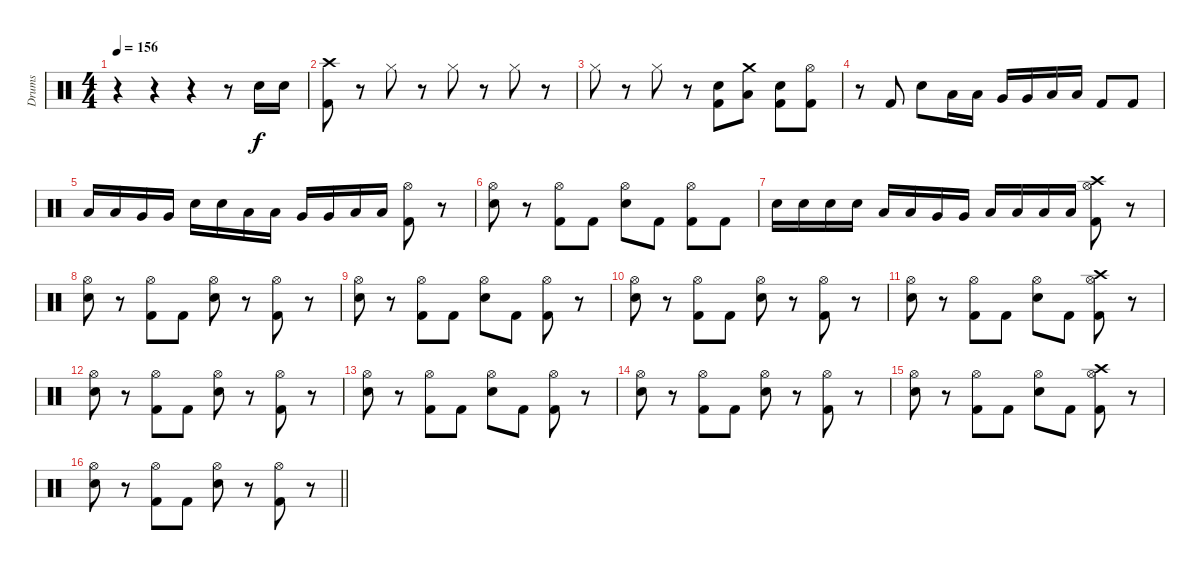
\track ("Drums" "Drums") {instrument percussion}
\staff {score}
\articulation defaults
\ts (4 4)
\tempo 156
\clef neutral
\ks c
r.4{dy f} r.4 r.4 r.8 "Electric Snare (hit)".16 "Electric Snare (hit)".16 |
("Crash high (hit)" "Kick (hit) 2").8 r.8 "Hi-Hat (closed)".8 r.8 "Hi-Hat (closed)".8 r.8 "Hi-Hat (closed)".8 r.8 |
"Hi-Hat (closed)".8 r.8 "Hi-Hat (closed)".8 r.8 ("Electric Snare (hit)" "Kick (hit) 2").8 ("Crash medium (hit)" "Low Tom (hit)").8 ("Electric Snare (hit)" "Kick (hit) 2").8 ("Hi-Hat (open)" "Kick (hit) 2").8 |
r.8 "Kick (hit) 2".8 "Electric Snare (hit)".8 "Low Tom (hit)".16 "Low Tom (hit)".16 "Very Low Tom (hit)".16 "Very Low Tom (hit)".16 "Low Floor Tom (hit)".16 "Low Floor Tom (hit)".16 "Kick (hit) 2".8 "Kick (hit) 2".8 |
"Low Floor Tom (hit)".16 "Low Floor Tom (hit)".16 "Very Low Tom (hit)".16 "Very Low Tom (hit)".16 "Electric Snare (hit)".16 "Electric Snare (hit)".16 "Low Tom (hit)".16 "Low Tom (hit)".16 "Very Low Tom (hit)".16 "Very Low Tom (hit)".16 "Low Floor Tom (hit)".16 "Low Floor Tom (hit)".16 ("Hi-Hat (open)" "Kick (hit) 2").8 r.8 |
("Hi-Hat (open)" "Electric Snare (hit)").8 r.8 ("Hi-Hat (open)" "Kick (hit) 2").8 "Kick (hit) 2".8 ("Hi-Hat (open)" "Electric Snare (hit)").8 "Kick (hit) 2".8 ("Hi-Hat (open)" "Kick (hit) 2").8 "Kick (hit) 2".8 |
"Electric Snare (hit)".16 "Electric Snare (hit)".16 "Electric Snare (hit)".16 "Electric Snare (hit)".16 "Low Tom (hit)".16 "Low Tom (hit)".16 "Very Low Tom (hit)".16 "Very Low Tom (hit)".16 "Low Floor Tom (hit)".16 "Low Floor Tom (hit)".16 "Low Floor Tom (hit)".16 "Low Floor Tom (hit)".16 ("Crash high (hit)" "Hi-Hat (open)" "Kick (hit) 2").8 r.8 |
("Hi-Hat (open)" "Electric Snare (hit)").8 r.8 ("Hi-Hat (open)" "Kick (hit) 2").8 "Kick (hit) 2".8 ("Hi-Hat (open)" "Electric Snare (hit)").8 r.8 ("Hi-Hat (open)" "Kick (hit) 2").8 r.8 |
("Hi-Hat (open)" "Electric Snare (hit)").8 r.8 ("Hi-Hat (open)" "Kick (hit) 2").8 "Kick (hit) 2".8 ("Hi-Hat (open)" "Electric Snare (hit)").8 "Kick (hit) 2".8 ("Hi-Hat (open)" "Kick (hit) 2").8 r.8 |
("Hi-Hat (open)" "Electric Snare (hit)").8 r.8 ("Hi-Hat (open)" "Kick (hit) 2").8 "Kick (hit) 2".8 ("Hi-Hat (open)" "Electric Snare (hit)").8 r.8 ("Hi-Hat (open)" "Kick (hit) 2").8 r.8 |
("Hi-Hat (open)" "Electric Snare (hit)").8 r.8 ("Hi-Hat (open)" "Kick (hit) 2").8 "Kick (hit) 2".8 ("Hi-Hat (open)" "Electric Snare (hit)").8 "Kick (hit) 2".8 ("Crash high (hit)" "Hi-Hat (open)" "Kick (hit) 2").8 r.8 |
("Hi-Hat (open)" "Electric Snare (hit)").8 r.8 ("Hi-Hat (open)" "Kick (hit) 2").8 "Kick (hit) 2".8 ("Hi-Hat (open)" "Electric Snare (hit)").8 r.8 ("Hi-Hat (open)" "Kick (hit) 2").8 r.8 |
("Hi-Hat (open)" "Electric Snare (hit)").8 r.8 ("Hi-Hat (open)" "Kick (hit) 2").8 "Kick (hit) 2".8 ("Hi-Hat (open)" "Electric Snare (hit)").8 "Kick (hit) 2".8 ("Hi-Hat (open)" "Kick (hit) 2").8 r.8 |
("Hi-Hat (open)" "Electric Snare (hit)").8 r.8 ("Hi-Hat (open)" "Kick (hit) 2").8 "Kick (hit) 2".8 ("Hi-Hat (open)" "Electric Snare (hit)").8 r.8 ("Hi-Hat (open)" "Kick (hit) 2").8 r.8 |
("Hi-Hat (open)" "Electric Snare (hit)").8 r.8 ("Hi-Hat (open)" "Kick (hit) 2").8 "Kick (hit) 2".8 ("Hi-Hat (open)" "Electric Snare (hit)").8 "Kick (hit) 2".8 ("Crash high (hit)" "Hi-Hat (open)" "Kick (hit) 2").8 r.8 |
\barLineRight lightlight
("Hi-Hat (open)" "Electric Snare (hit)").8 r.8 ("Hi-Hat (open)" "Kick (hit) 2").8 "Kick (hit) 2".8 ("Hi-Hat (open)" "Electric Snare (hit)").8 r.8 ("Hi-Hat (open)" "Kick (hit) 2").8 r.8
